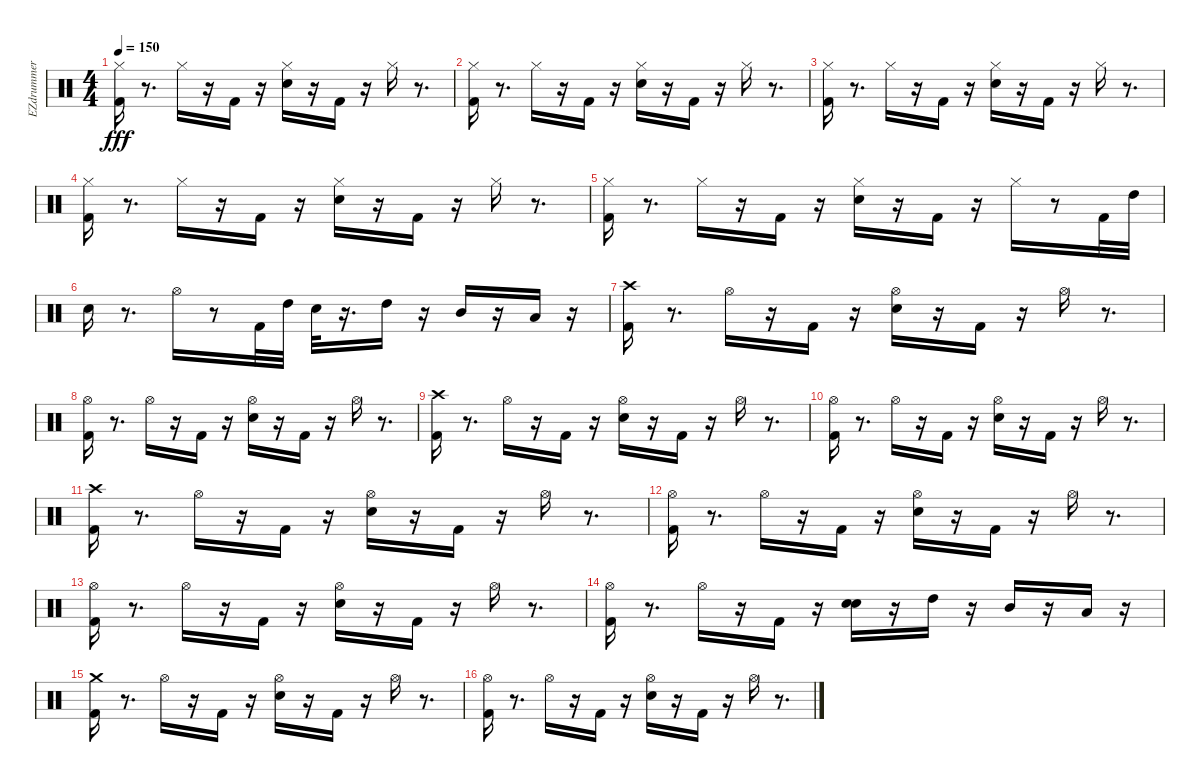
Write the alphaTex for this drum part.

\track ("EZdrummer 01" "EZdrummer ") {instrument percussion}
\staff {score}
\articulation defaults
\ts (4 4)
\tempo 150
\clef neutral
\ks c
("Kick (hit) 2" "Hi-Hat (closed)").16{dy fff} r.8{d} "Hi-Hat (closed)".16 r.16 "Kick (hit) 2".16 r.16 ("Electric Snare (hit)" "Hi-Hat (closed)").16 r.16 "Kick (hit) 2".16 r.16 "Hi-Hat (closed)".16 r.8{d} |
("Kick (hit) 2" "Hi-Hat (closed)").16 r.8{d} "Hi-Hat (closed)".16 r.16 "Kick (hit) 2".16 r.16 ("Electric Snare (hit)" "Hi-Hat (closed)").16 r.16 "Kick (hit) 2".16 r.16 "Hi-Hat (closed)".16 r.8{d} |
("Kick (hit) 2" "Hi-Hat (closed)").16 r.8{d} "Hi-Hat (closed)".16 r.16 "Kick (hit) 2".16 r.16 ("Electric Snare (hit)" "Hi-Hat (closed)").16 r.16 "Kick (hit) 2".16 r.16 "Hi-Hat (closed)".16 r.8{d} |
("Kick (hit) 2" "Hi-Hat (closed)").16 r.8{d} "Hi-Hat (closed)".16 r.16 "Kick (hit) 2".16 r.16 ("Electric Snare (hit)" "Hi-Hat (closed)").16 r.16 "Kick (hit) 2".16 r.16 "Hi-Hat (closed)".16 r.8{d} |
("Kick (hit) 2" "Hi-Hat (closed)").16 r.8{d} "Hi-Hat (closed)".16 r.16 "Kick (hit) 2".16 r.16 ("Electric Snare (hit)" "Hi-Hat (closed)").16 r.16 "Kick (hit) 2".16 r.16 "Hi-Hat (closed)".16 r.8 "Kick (hit) 2".32 "High Tom (hit)".32 |
"Electric Snare (hit)".16 r.8{d} "Hi-Hat (open)".16 r.8 "Kick (hit) 2".32 "High Tom (hit)".32 "Electric Snare (hit)".32 r.16{d} "High Tom (hit)".16 r.16 "Mid Tom (hit)".16 r.16 "Low Tom (hit)".16 r.16 |
("Kick (hit) 2" "Crash high (hit)").16 r.8{d} "Hi-Hat (open)".16 r.16 "Kick (hit) 2".16 r.16 ("Electric Snare (hit)" "Hi-Hat (open)").16 r.16 "Kick (hit) 2".16 r.16 "Hi-Hat (open)".16 r.8{d} |
("Kick (hit) 2" "Hi-Hat (open)").16 r.8{d} "Hi-Hat (open)".16 r.16 "Kick (hit) 2".16 r.16 ("Electric Snare (hit)" "Hi-Hat (open)").16 r.16 "Kick (hit) 2".16 r.16 "Hi-Hat (open)".16 r.8{d} |
("Kick (hit) 2" "Crash high (hit)").16 r.8{d} "Hi-Hat (open)".16 r.16 "Kick (hit) 2".16 r.16 ("Electric Snare (hit)" "Hi-Hat (open)").16 r.16 "Kick (hit) 2".16 r.16 "Hi-Hat (open)".16 r.8{d} |
("Kick (hit) 2" "Hi-Hat (open)").16 r.8{d} "Hi-Hat (open)".16 r.16 "Kick (hit) 2".16 r.16 ("Electric Snare (hit)" "Hi-Hat (open)").16 r.16 "Kick (hit) 2".16 r.16 "Hi-Hat (open)".16 r.8{d} |
("Kick (hit) 2" "Crash high (hit)").16 r.8{d} "Hi-Hat (open)".16 r.16 "Kick (hit) 2".16 r.16 ("Electric Snare (hit)" "Hi-Hat (open)").16 r.16 "Kick (hit) 2".16 r.16 "Hi-Hat (open)".16 r.8{d} |
("Kick (hit) 2" "Hi-Hat (open)").16 r.8{d} "Hi-Hat (open)".16 r.16 "Kick (hit) 2".16 r.16 ("Electric Snare (hit)" "Hi-Hat (open)").16 r.16 "Kick (hit) 2".16 r.16 "Hi-Hat (open)".16 r.8{d} |
("Kick (hit) 2" "Hi-Hat (open)").16 r.8{d} "Hi-Hat (open)".16 r.16 "Kick (hit) 2".16 r.16 ("Electric Snare (hit)" "Hi-Hat (open)").16 r.16 "Kick (hit) 2".16 r.16 "Hi-Hat (open)".16 r.8{d} |
("Kick (hit) 2" "Hi-Hat (open)").16 r.8{d} "Hi-Hat (open)".16 r.16 "Kick (hit) 2".16 r.16 ("Electric Snare (hit)" "Electric Snare (hit)").16 r.16 "High Tom (hit)".16 r.16 "Mid Tom (hit)".16 r.16 "Low Tom (hit)".16 r.16 |
("Kick (hit) 2" "Crash medium (hit)").16 r.8{d} "Hi-Hat (open)".16 r.16 "Kick (hit) 2".16 r.16 ("Electric Snare (hit)" "Hi-Hat (open)").16 r.16 "Kick (hit) 2".16 r.16 "Hi-Hat (open)".16 r.8{d} |
("Kick (hit) 2" "Hi-Hat (open)").16 r.8{d} "Hi-Hat (open)".16 r.16 "Kick (hit) 2".16 r.16 ("Electric Snare (hit)" "Hi-Hat (open)").16 r.16 "Kick (hit) 2".16 r.16 "Hi-Hat (open)".16 r.8{d}
